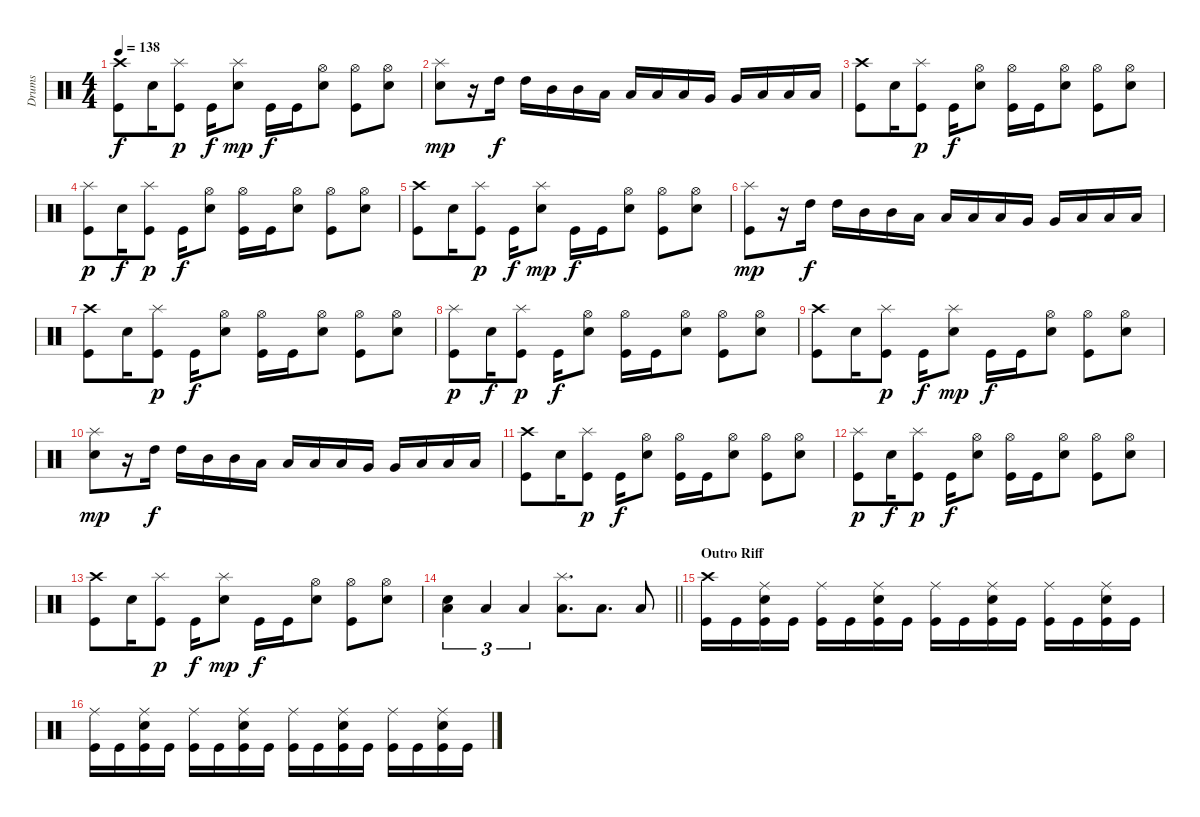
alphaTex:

\track ("Drums" "Drums") {instrument percussion}
\staff {score}
\articulation defaults
\ts (4 4)
\tempo 138
\clef neutral
\ks c
("Crash high (hit)" "Kick (hit)").8{dy f} "Electric Snare (hit)".16 ("Splash (hit)" "Kick (hit)").8{dy p} "Kick (hit)".16{dy f} ("Splash (hit)" "Electric Snare (hit)").8{dy mp} "Kick (hit)".16{dy f} "Kick (hit)".16 ("Hi-Hat (open)" "Electric Snare (hit)").8 ("Hi-Hat (open)" "Kick (hit)").8 ("Hi-Hat (open)" "Electric Snare (hit)").8 |
("Splash (hit)" "Electric Snare (hit)").8{dy mp} r.16 "High Tom (hit)".16{dy f} "High Tom (hit)".16 "Mid Tom (hit)".16 "Mid Tom (hit)".16 "Low Tom (hit)".16 "Low Tom (hit)".16 "Low Tom (hit)".16 "Low Tom (hit)".16 "Very Low Tom (hit)".16 "Very Low Tom (hit)".16 "Low Floor Tom (hit)".16 "Low Floor Tom (hit)".16 "Low Floor Tom (hit)".16 |
("Crash high (hit)" "Kick (hit)").8 "Electric Snare (hit)".16 ("Splash (hit)" "Kick (hit)").8{dy p} "Kick (hit)".16{dy f} ("Hi-Hat (open)" "Electric Snare (hit)").8 ("Hi-Hat (open)" "Kick (hit)").16 "Kick (hit)".16 ("Hi-Hat (open)" "Electric Snare (hit)").8 ("Hi-Hat (open)" "Kick (hit)").8 ("Hi-Hat (open)" "Electric Snare (hit)").8 |
("Splash (hit)" "Kick (hit)").8{dy p} "Electric Snare (hit)".16{dy f} ("Splash (hit)" "Kick (hit)").8{dy p} "Kick (hit)".16{dy f} ("Hi-Hat (open)" "Electric Snare (hit)").8 ("Hi-Hat (open)" "Kick (hit)").16 "Kick (hit)".16 ("Hi-Hat (open)" "Electric Snare (hit)").8 ("Hi-Hat (open)" "Kick (hit)").8 ("Hi-Hat (open)" "Electric Snare (hit)").8 |
("Crash high (hit)" "Kick (hit)").8 "Electric Snare (hit)".16 ("Splash (hit)" "Kick (hit)").8{dy p} "Kick (hit)".16{dy f} ("Splash (hit)" "Electric Snare (hit)").8{dy mp} "Kick (hit)".16{dy f} "Kick (hit)".16 ("Hi-Hat (open)" "Electric Snare (hit)").8 ("Hi-Hat (open)" "Kick (hit)").8 ("Hi-Hat (open)" "Electric Snare (hit)").8 |
("Splash (hit)" "Kick (hit)").8{dy mp} r.16 "High Tom (hit)".16{dy f} "High Tom (hit)".16 "Mid Tom (hit)".16 "Mid Tom (hit)".16 "Low Tom (hit)".16 "Low Tom (hit)".16 "Low Tom (hit)".16 "Low Tom (hit)".16 "Very Low Tom (hit)".16 "Very Low Tom (hit)".16 "Low Floor Tom (hit)".16 "Low Floor Tom (hit)".16 "Low Floor Tom (hit)".16 |
("Crash high (hit)" "Kick (hit)").8 "Electric Snare (hit)".16 ("Splash (hit)" "Kick (hit)").8{dy p} "Kick (hit)".16{dy f} ("Hi-Hat (open)" "Electric Snare (hit)").8 ("Hi-Hat (open)" "Kick (hit)").16 "Kick (hit)".16 ("Hi-Hat (open)" "Electric Snare (hit)").8 ("Hi-Hat (open)" "Kick (hit)").8 ("Hi-Hat (open)" "Electric Snare (hit)").8 |
("Splash (hit)" "Kick (hit)").8{dy p} "Electric Snare (hit)".16{dy f} ("Splash (hit)" "Kick (hit)").8{dy p} "Kick (hit)".16{dy f} ("Hi-Hat (open)" "Electric Snare (hit)").8 ("Hi-Hat (open)" "Kick (hit)").16 "Kick (hit)".16 ("Hi-Hat (open)" "Electric Snare (hit)").8 ("Hi-Hat (open)" "Kick (hit)").8 ("Hi-Hat (open)" "Electric Snare (hit)").8 |
("Crash high (hit)" "Kick (hit)").8 "Electric Snare (hit)".16 ("Splash (hit)" "Kick (hit)").8{dy p} "Kick (hit)".16{dy f} ("Splash (hit)" "Electric Snare (hit)").8{dy mp} "Kick (hit)".16{dy f} "Kick (hit)".16 ("Hi-Hat (open)" "Electric Snare (hit)").8 ("Hi-Hat (open)" "Kick (hit)").8 ("Hi-Hat (open)" "Electric Snare (hit)").8 |
("Splash (hit)" "Electric Snare (hit)").8{dy mp} r.16 "High Tom (hit)".16{dy f} "High Tom (hit)".16 "Mid Tom (hit)".16 "Mid Tom (hit)".16 "Low Tom (hit)".16 "Low Tom (hit)".16 "Low Tom (hit)".16 "Low Tom (hit)".16 "Very Low Tom (hit)".16 "Very Low Tom (hit)".16 "Low Floor Tom (hit)".16 "Low Floor Tom (hit)".16 "Low Floor Tom (hit)".16 |
("Crash high (hit)" "Kick (hit)").8 "Electric Snare (hit)".16 ("Splash (hit)" "Kick (hit)").8{dy p} "Kick (hit)".16{dy f} ("Hi-Hat (open)" "Electric Snare (hit)").8 ("Hi-Hat (open)" "Kick (hit)").16 "Kick (hit)".16 ("Hi-Hat (open)" "Electric Snare (hit)").8 ("Hi-Hat (open)" "Kick (hit)").8 ("Hi-Hat (open)" "Electric Snare (hit)").8 |
("Splash (hit)" "Kick (hit)").8{dy p} "Electric Snare (hit)".16{dy f} ("Splash (hit)" "Kick (hit)").8{dy p} "Kick (hit)".16{dy f} ("Hi-Hat (open)" "Electric Snare (hit)").8 ("Hi-Hat (open)" "Kick (hit)").16 "Kick (hit)".16 ("Hi-Hat (open)" "Electric Snare (hit)").8 ("Hi-Hat (open)" "Kick (hit)").8 ("Hi-Hat (open)" "Electric Snare (hit)").8 |
("Crash high (hit)" "Kick (hit)").8 "Electric Snare (hit)".16 ("Splash (hit)" "Kick (hit)").8{dy p} "Kick (hit)".16{dy f} ("Splash (hit)" "Electric Snare (hit)").8{dy mp} "Kick (hit)".16{dy f} "Kick (hit)".16 ("Hi-Hat (open)" "Electric Snare (hit)").8 ("Hi-Hat (open)" "Kick (hit)").8 ("Hi-Hat (open)" "Electric Snare (hit)").8 |
\barLineRight lightlight
("Electric Snare (hit)" "Low Floor Tom (hit)").4{tu (3 2)} "Low Floor Tom (hit)".4{tu (3 2)} "Low Floor Tom (hit)".4{tu (3 2)} ("Splash (hit)" "Low Floor Tom (hit)").8{d} "Low Floor Tom (hit)".8{d} "Low Floor Tom (hit)".8 |
\section ("" "Outro Riff")
("Crash high (hit)" "Kick (hit)").16 "Kick (hit)".16 ("Ride (middle)" "Electric Snare (hit)" "Kick (hit)").16 "Kick (hit)".16 ("Ride (middle)" "Kick (hit)").16 "Kick (hit)".16 ("Ride (middle)" "Electric Snare (hit)" "Kick (hit)").16 "Kick (hit)".16 ("Ride (middle)" "Kick (hit)").16 "Kick (hit)".16 ("Ride (middle)" "Electric Snare (hit)" "Kick (hit)").16 "Kick (hit)".16 ("Ride (middle)" "Kick (hit)").16 "Kick (hit)".16 ("Ride (middle)" "Electric Snare (hit)" "Kick (hit)").16 "Kick (hit)".16 |
("Ride (middle)" "Kick (hit)").16 "Kick (hit)".16 ("Ride (middle)" "Electric Snare (hit)" "Kick (hit)").16 "Kick (hit)".16 ("Ride (middle)" "Kick (hit)").16 "Kick (hit)".16 ("Ride (middle)" "Electric Snare (hit)" "Kick (hit)").16 "Kick (hit)".16 ("Ride (middle)" "Kick (hit)").16 "Kick (hit)".16 ("Ride (middle)" "Electric Snare (hit)" "Kick (hit)").16 "Kick (hit)".16 ("Ride (middle)" "Kick (hit)").16 "Kick (hit)".16 ("Ride (middle)" "Electric Snare (hit)" "Kick (hit)").16 "Kick (hit)".16
